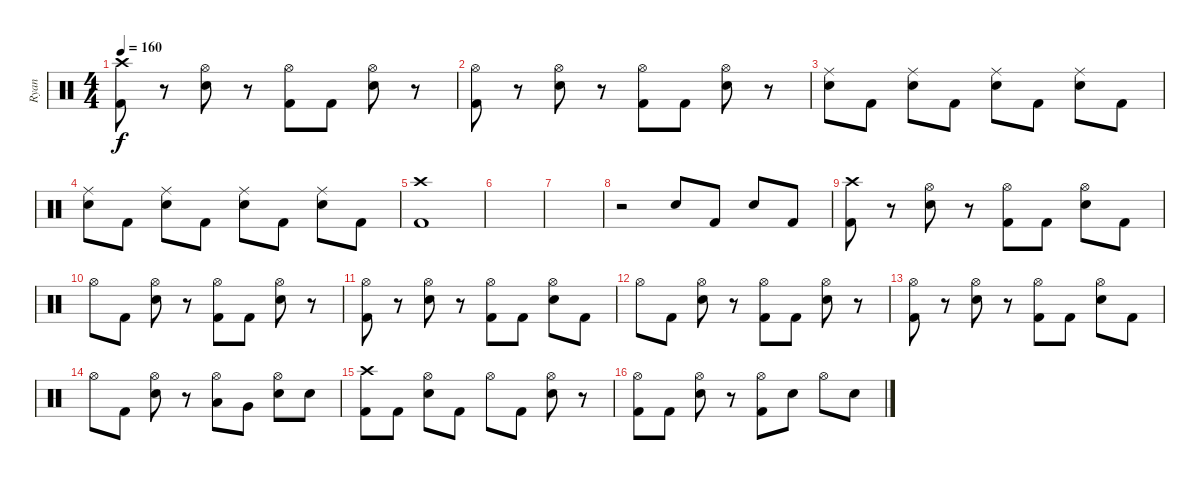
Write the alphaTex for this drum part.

\track ("Ryan" "Ryan") {instrument percussion}
\staff {score}
\articulation defaults
\ts (4 4)
\tempo 160
\clef neutral
\ks c
("Crash high (hit)" "Kick (hit) 2").8{dy f} r.8 ("Hi-Hat (open)" "Snare (hit) 2").8 r.8 ("Hi-Hat (open)" "Kick (hit) 2").8 "Kick (hit) 2".8 ("Hi-Hat (open)" "Snare (hit) 2").8 r.8 |
("Hi-Hat (open)" "Kick (hit) 2").8 r.8 ("Hi-Hat (open)" "Snare (hit) 2").8 r.8 ("Hi-Hat (open)" "Kick (hit) 2").8 "Kick (hit) 2".8 ("Hi-Hat (open)" "Snare (hit) 2").8 r.8 |
("Ride (middle)" "Snare (hit) 2").8 "Kick (hit) 2".8 ("Ride (middle)" "Snare (hit) 2").8 "Kick (hit) 2".8 ("Ride (middle)" "Snare (hit) 2").8 "Kick (hit) 2".8 ("Ride (middle)" "Snare (hit) 2").8 "Kick (hit) 2".8 |
("Ride (middle)" "Snare (hit) 2").8 "Kick (hit) 2".8 ("Ride (middle)" "Snare (hit) 2").8 "Kick (hit) 2".8 ("Ride (middle)" "Snare (hit) 2").8 "Kick (hit) 2".8 ("Ride (middle)" "Snare (hit) 2").8 "Kick (hit) 2".8 |
("Crash high (hit)" "Kick (hit) 2").1 |
|
|
r.2 "Snare (hit) 2".8 "Kick (hit) 2".8 "Snare (hit) 2".8 "Kick (hit) 2".8 |
("Crash high (hit)" "Kick (hit) 2").8 r.8 ("Hi-Hat (open)" "Snare (hit) 2").8 r.8 ("Hi-Hat (open)" "Kick (hit) 2").8 "Kick (hit) 2".8 ("Hi-Hat (open)" "Snare (hit) 2").8 "Kick (hit) 2".8 |
"Hi-Hat (open)".8 "Kick (hit) 2".8 ("Hi-Hat (open)" "Snare (hit) 2").8 r.8 ("Hi-Hat (open)" "Kick (hit) 2").8 "Kick (hit) 2".8 ("Hi-Hat (open)" "Snare (hit) 2").8 r.8 |
("Hi-Hat (open)" "Kick (hit) 2").8 r.8 ("Hi-Hat (open)" "Snare (hit) 2").8 r.8 ("Hi-Hat (open)" "Kick (hit) 2").8 "Kick (hit) 2".8 ("Hi-Hat (open)" "Snare (hit) 2").8 "Kick (hit) 2".8 |
"Hi-Hat (open)".8 "Kick (hit) 2".8 ("Hi-Hat (open)" "Snare (hit) 2").8 r.8 ("Hi-Hat (open)" "Kick (hit) 2").8 "Kick (hit) 2".8 ("Hi-Hat (open)" "Snare (hit) 2").8 r.8 |
("Hi-Hat (open)" "Kick (hit) 2").8 r.8 ("Hi-Hat (open)" "Snare (hit) 2").8 r.8 ("Hi-Hat (open)" "Kick (hit) 2").8 "Kick (hit) 2".8 ("Hi-Hat (open)" "Snare (hit) 2").8 "Kick (hit) 2".8 |
"Hi-Hat (open)".8 "Kick (hit) 2".8 ("Hi-Hat (open)" "Snare (hit) 2").8 r.8 ("Hi-Hat (open)" "Low Tom (hit)").8 "Very Low Tom (hit)".8 ("Hi-Hat (open)" "Snare (hit) 2").8 "Snare (hit) 2".8 |
("Crash high (hit)" "Kick (hit) 2").8 "Kick (hit) 2".8 ("Hi-Hat (open)" "Snare (hit) 2").8 "Kick (hit) 2".8 "Hi-Hat (open)".8 "Kick (hit) 2".8 ("Hi-Hat (open)" "Snare (hit) 2").8 r.8 |
("Hi-Hat (open)" "Kick (hit) 2").8 "Kick (hit) 2".8 ("Hi-Hat (open)" "Snare (hit) 2").8 r.8 ("Hi-Hat (open)" "Kick (hit) 2").8 "Snare (hit) 2".8 "Hi-Hat (open)".8 "Snare (hit) 2".8
